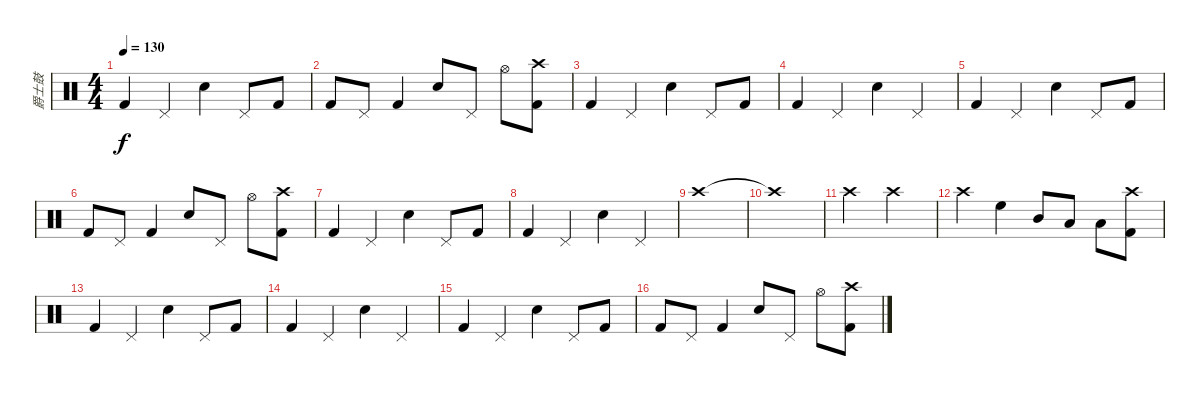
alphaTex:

\track ("爵士鼓" "爵士鼓") {instrument percussion}
\staff {score}
\articulation defaults
\ts (4 4)
\tempo 130
\clef neutral
\ks c "Kick (hit) 2".4{dy f} "Pedal Hi-Hat (hit)".4 "Snare (hit) 2".4 "Pedal Hi-Hat (hit)".8 "Kick (hit) 2".8
|
"Kick (hit) 2".8 "Pedal Hi-Hat (hit)".8 "Kick (hit) 2".4 "Snare (hit) 2".8 "Pedal Hi-Hat (hit)".8 "Hi-Hat (open)".8 ("Kick (hit) 2" "Crash high (hit)").8 |
"Kick (hit) 2".4 "Pedal Hi-Hat (hit)".4 "Snare (hit) 2".4 "Pedal Hi-Hat (hit)".8 "Kick (hit) 2".8 |
"Kick (hit) 2".4 "Pedal Hi-Hat (hit)".4 "Snare (hit) 2".4 "Pedal Hi-Hat (hit)".4 |
"Kick (hit) 2".4 "Pedal Hi-Hat (hit)".4 "Snare (hit) 2".4 "Pedal Hi-Hat (hit)".8 "Kick (hit) 2".8 |
"Kick (hit) 2".8 "Pedal Hi-Hat (hit)".8 "Kick (hit) 2".4 "Snare (hit) 2".8 "Pedal Hi-Hat (hit)".8 "Hi-Hat (open)".8 ("Kick (hit) 2" "Crash high (hit)").8 |
"Kick (hit) 2".4 "Pedal Hi-Hat (hit)".4 "Snare (hit) 2".4 "Pedal Hi-Hat (hit)".8 "Kick (hit) 2".8 |
"Kick (hit) 2".4 "Pedal Hi-Hat (hit)".4 "Snare (hit) 2".4 "Pedal Hi-Hat (hit)".4 |
"Crash high (hit)".1 |
"Crash high (hit)"{t}.1 |
"Crash high (hit)".2 "Crash high (hit)".2 |
"Crash high (hit)".4 "High Floor Tom (hit)".4 "Mid Tom (hit)".8 "Low Tom (hit)".8 "Low Floor Tom (hit)".8 ("Kick (hit) 2" "Crash high (hit)").8 |
"Kick (hit) 2".4 "Pedal Hi-Hat (hit)".4 "Snare (hit) 2".4 "Pedal Hi-Hat (hit)".8 "Kick (hit) 2".8 |
"Kick (hit) 2".4 "Pedal Hi-Hat (hit)".4 "Snare (hit) 2".4 "Pedal Hi-Hat (hit)".4 |
"Kick (hit) 2".4 "Pedal Hi-Hat (hit)".4 "Snare (hit) 2".4 "Pedal Hi-Hat (hit)".8 "Kick (hit) 2".8 |
"Kick (hit) 2".8 "Pedal Hi-Hat (hit)".8 "Kick (hit) 2".4 "Snare (hit) 2".8 "Pedal Hi-Hat (hit)".8 "Hi-Hat (open)".8 ("Kick (hit) 2" "Crash high (hit)").8
